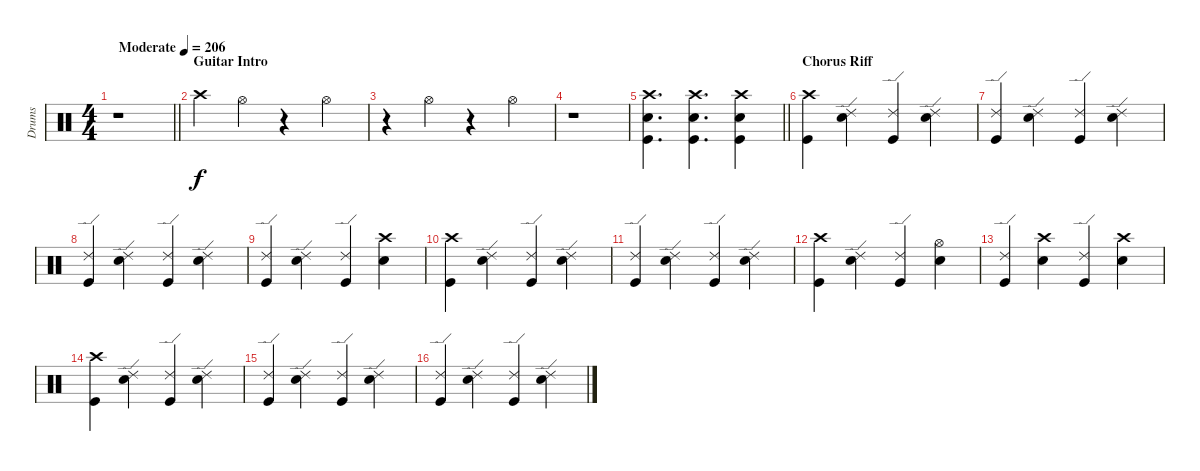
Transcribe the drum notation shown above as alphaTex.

\track ("Drums" "Drums") {instrument percussion}
\staff {score}
\articulation defaults
\ts (4 4)
\tempo (206 "Moderate")
\clef neutral
\barLineRight lightlight
\ks c
r.1{dy f} |
\section ("" "Guitar Intro")
"Crash high (hit)".4 "Hi-Hat (open)".4 r.4 "Hi-Hat (open)".4 |
r.4 "Hi-Hat (open)".4 r.4 "Hi-Hat (open)".4 |
r.1 |
\barLineRight lightlight
("Crash high (hit)" "Electric Snare (hit)" "Kick (hit)").4{d} ("Crash high (hit)" "Electric Snare (hit)" "Kick (hit)").4{d} ("Crash high (hit)" "Electric Snare (hit)" "Kick (hit)").4 |
\section ("" "Chorus Riff")
("Crash high (hit)" "Kick (hit)").4 ("Ride (edge) 2" "Electric Snare (hit)").4 ("Ride (edge) 2" "Kick (hit)").4 ("Ride (edge) 2" "Electric Snare (hit)").4 |
("Ride (edge) 2" "Kick (hit)").4 ("Ride (edge) 2" "Electric Snare (hit)").4 ("Ride (edge) 2" "Kick (hit)").4 ("Ride (edge) 2" "Electric Snare (hit)").4 |
("Ride (edge) 2" "Kick (hit)").4 ("Ride (edge) 2" "Electric Snare (hit)").4 ("Ride (edge) 2" "Kick (hit)").4 ("Ride (edge) 2" "Electric Snare (hit)").4 |
("Ride (edge) 2" "Kick (hit)").4 ("Ride (edge) 2" "Electric Snare (hit)").4 ("Ride (edge) 2" "Kick (hit)").4 ("Crash high (hit)" "Electric Snare (hit)").4 |
("Crash high (hit)" "Kick (hit)").4 ("Ride (edge) 2" "Electric Snare (hit)").4 ("Ride (edge) 2" "Kick (hit)").4 ("Ride (edge) 2" "Electric Snare (hit)").4 |
("Ride (edge) 2" "Kick (hit)").4 ("Ride (edge) 2" "Electric Snare (hit)").4 ("Ride (edge) 2" "Kick (hit)").4 ("Ride (edge) 2" "Electric Snare (hit)").4 |
("Crash high (hit)" "Kick (hit)").4 ("Ride (edge) 2" "Electric Snare (hit)").4 ("Ride (edge) 2" "Kick (hit)").4 ("Hi-Hat (open)" "Electric Snare (hit)").4 |
("Ride (edge) 2" "Kick (hit)").4 ("Crash high (hit)" "Electric Snare (hit)").4 ("Ride (edge) 2" "Kick (hit)").4 ("Crash high (hit)" "Electric Snare (hit)").4 |
("Crash high (hit)" "Kick (hit)").4 ("Ride (edge) 2" "Electric Snare (hit)").4 ("Ride (edge) 2" "Kick (hit)").4 ("Ride (edge) 2" "Electric Snare (hit)").4 |
("Ride (edge) 2" "Kick (hit)").4 ("Ride (edge) 2" "Electric Snare (hit)").4 ("Ride (edge) 2" "Kick (hit)").4 ("Ride (edge) 2" "Electric Snare (hit)").4 |
("Ride (edge) 2" "Kick (hit)").4 ("Ride (edge) 2" "Electric Snare (hit)").4 ("Ride (edge) 2" "Kick (hit)").4 ("Ride (edge) 2" "Electric Snare (hit)").4
